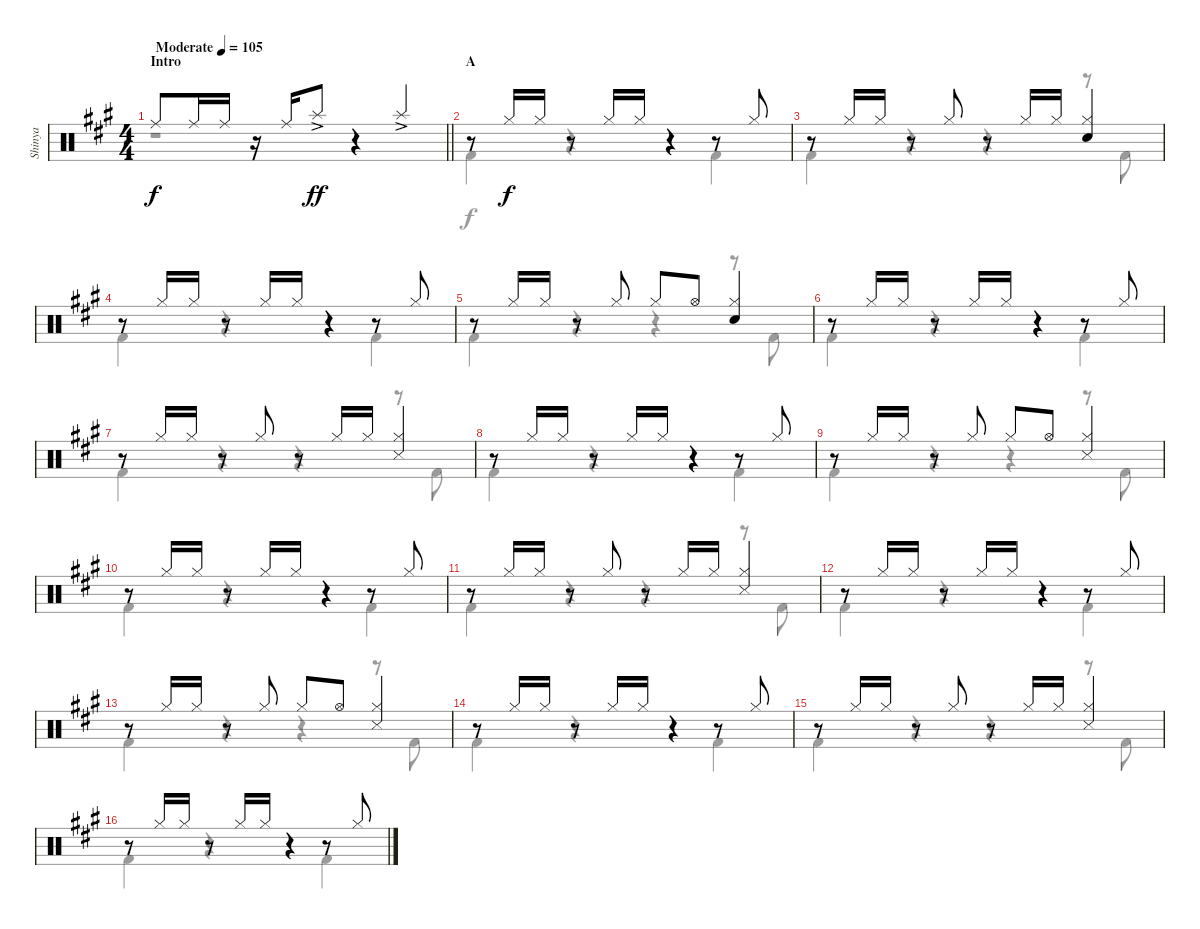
\track ("Shinya" "Shinya") {instrument percussion}
\staff {score}
\articulation defaults
\voice
\ts (4 4)
\section ("" "Intro")
\tempo (105 "Moderate")
\clef neutral
\barLineRight lightlight
\ks f#minor "Ride (middle)".8{dy f} "Ride (middle)".16 "Ride (middle)".16
r.16 "Ride (middle)".16 "Splash (hit)"{ac}.8{dy ff} r.4 "Splash (hit)"{ac}.4 |
\section ("" "A")
r.8 "Hi-Hat (closed)".16{dy f} "Hi-Hat (closed)".16 r.8 "Hi-Hat (closed)".16 "Hi-Hat (closed)".16 r.4 r.8 "Hi-Hat (closed)".8 |
r.8 "Hi-Hat (closed)".16 "Hi-Hat (closed)".16 r.8 "Hi-Hat (closed)".8 r.8 "Hi-Hat (closed)".16 "Hi-Hat (closed)".16 ("Hi-Hat (closed)" "Snare (hit) 2").4 |
r.8 "Hi-Hat (closed)".16 "Hi-Hat (closed)".16 r.8 "Hi-Hat (closed)".16 "Hi-Hat (closed)".16 r.4 r.8 "Hi-Hat (closed)".8 |
r.8 "Hi-Hat (closed)".16 "Hi-Hat (closed)".16 r.8 "Hi-Hat (closed)".8 "Hi-Hat (closed)".8 "Hi-Hat (open)".8 ("Hi-Hat (closed)" "Snare (hit) 2").4 |
r.8 "Hi-Hat (closed)".16 "Hi-Hat (closed)".16 r.8 "Hi-Hat (closed)".16 "Hi-Hat (closed)".16 r.4 r.8 "Hi-Hat (closed)".8 |
r.8 "Hi-Hat (closed)".16 "Hi-Hat (closed)".16 r.8 "Hi-Hat (closed)".8 r.8 "Hi-Hat (closed)".16 "Hi-Hat (closed)".16 ("Hi-Hat (closed)" "Snare (side stick) 3").4 |
r.8 "Hi-Hat (closed)".16 "Hi-Hat (closed)".16 r.8 "Hi-Hat (closed)".16 "Hi-Hat (closed)".16 r.4 r.8 "Hi-Hat (closed)".8 |
r.8 "Hi-Hat (closed)".16 "Hi-Hat (closed)".16 r.8 "Hi-Hat (closed)".8 "Hi-Hat (closed)".8 "Hi-Hat (open)".8 ("Hi-Hat (closed)" "Snare (side stick) 3").4 |
r.8 "Hi-Hat (closed)".16 "Hi-Hat (closed)".16 r.8 "Hi-Hat (closed)".16 "Hi-Hat (closed)".16 r.4 r.8 "Hi-Hat (closed)".8 |
r.8 "Hi-Hat (closed)".16 "Hi-Hat (closed)".16 r.8 "Hi-Hat (closed)".8 r.8 "Hi-Hat (closed)".16 "Hi-Hat (closed)".16 ("Hi-Hat (closed)" "Snare (side stick) 3").4 |
r.8 "Hi-Hat (closed)".16 "Hi-Hat (closed)".16 r.8 "Hi-Hat (closed)".16 "Hi-Hat (closed)".16 r.4 r.8 "Hi-Hat (closed)".8 |
r.8 "Hi-Hat (closed)".16 "Hi-Hat (closed)".16 r.8 "Hi-Hat (closed)".8 "Hi-Hat (closed)".8 "Hi-Hat (open)".8 ("Hi-Hat (closed)" "Snare (side stick) 3").4 |
r.8 "Hi-Hat (closed)".16 "Hi-Hat (closed)".16 r.8 "Hi-Hat (closed)".16 "Hi-Hat (closed)".16 r.4 r.8 "Hi-Hat (closed)".8 |
r.8 "Hi-Hat (closed)".16 "Hi-Hat (closed)".16 r.8 "Hi-Hat (closed)".8 r.8 "Hi-Hat (closed)".16 "Hi-Hat (closed)".16 ("Hi-Hat (closed)" "Snare (side stick) 3").4 |
r.8 "Hi-Hat (closed)".16 "Hi-Hat (closed)".16 r.8 "Hi-Hat (closed)".16 "Hi-Hat (closed)".16 r.4 r.8 "Hi-Hat (closed)".8
\voice
\clef neutral
\ottava regular
\simile none
\barLineRight lightlight
\ks f#minor
r.1{dy f} |
"Kick (hit) 2".4 r.4 r.4 "Kick (hit) 2".4 |
"Kick (hit) 2".4 r.4 r.4 r.8 "Kick (hit) 2".8 |
"Kick (hit) 2".4 r.4 r.4 "Kick (hit) 2".4 |
"Kick (hit) 2".4 r.4 r.4 r.8 "Kick (hit) 2".8 |
"Kick (hit) 2".4 r.4 r.4 "Kick (hit) 2".4 |
"Kick (hit) 2".4 r.4 r.4 r.8 "Kick (hit) 2".8 |
"Kick (hit) 2".4 r.4 r.4 "Kick (hit) 2".4 |
"Kick (hit) 2".4 r.4 r.4 r.8 "Kick (hit) 2".8 |
"Kick (hit) 2".4 r.4 r.4 "Kick (hit) 2".4 |
"Kick (hit) 2".4 r.4 r.4 r.8 "Kick (hit) 2".8 |
"Kick (hit) 2".4 r.4 r.4 "Kick (hit) 2".4 |
"Kick (hit) 2".4 r.4 r.4 r.8 "Kick (hit) 2".8 |
"Kick (hit) 2".4 r.4 r.4 "Kick (hit) 2".4 |
"Kick (hit) 2".4 r.4 r.4 r.8 "Kick (hit) 2".8 |
"Kick (hit) 2".4 r.4 r.4 "Kick (hit) 2".4
